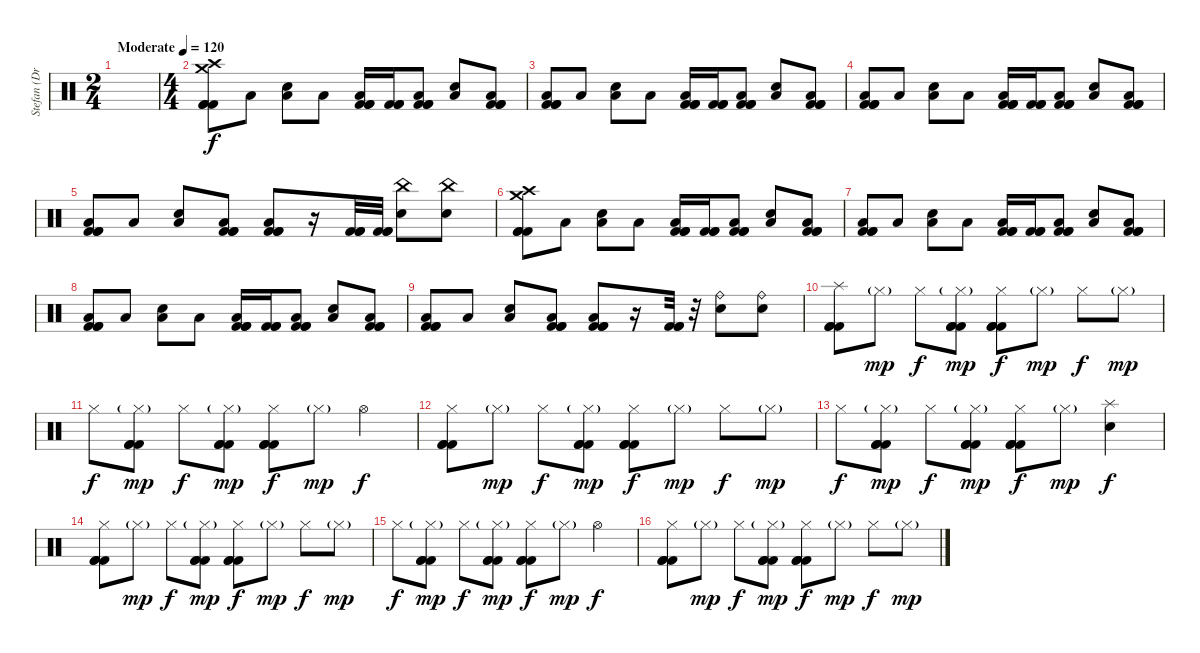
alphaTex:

\track ("Stefan (Drums)" "Stefan (Dr") {instrument percussion}
\staff {score}
\articulation defaults
\ts (2 4)
\tempo (120 "Moderate")
\clef neutral
\ks c
|
\ts (4 4)
("Crash high (hit)" "Crash medium (hit)" "Kick (hit) 2" "Kick (hit) 2" "Kick (hit) 2").8 "Low Tom (hit)".8 ("Snare (hit) 2" "Low Tom (hit)").8 "Low Tom (hit)".8 ("Low Tom (hit)" "Kick (hit) 2" "Kick (hit) 2" "Kick (hit) 2").16 ("Kick (hit) 2" "Kick (hit) 2" "Kick (hit) 2").16 ("Low Tom (hit)" "Kick (hit) 2" "Kick (hit) 2" "Kick (hit) 2").8 ("Snare (hit) 2" "Low Tom (hit)").8 ("Low Tom (hit)" "Kick (hit) 2" "Kick (hit) 2" "Kick (hit) 2").8 |
("Low Tom (hit)" "Kick (hit) 2" "Kick (hit) 2" "Kick (hit) 2").8 "Low Tom (hit)".8 ("Snare (hit) 2" "Low Tom (hit)").8 "Low Tom (hit)".8 ("Low Tom (hit)" "Kick (hit) 2" "Kick (hit) 2" "Kick (hit) 2").16 ("Kick (hit) 2" "Kick (hit) 2" "Kick (hit) 2").16 ("Low Tom (hit)" "Kick (hit) 2" "Kick (hit) 2" "Kick (hit) 2").8 ("Snare (hit) 2" "Low Tom (hit)").8 ("Low Tom (hit)" "Kick (hit) 2" "Kick (hit) 2" "Kick (hit) 2").8 |
("Low Tom (hit)" "Kick (hit) 2" "Kick (hit) 2" "Kick (hit) 2").8 "Low Tom (hit)".8 ("Snare (hit) 2" "Low Tom (hit)").8 "Low Tom (hit)".8 ("Low Tom (hit)" "Kick (hit) 2" "Kick (hit) 2" "Kick (hit) 2").16 ("Kick (hit) 2" "Kick (hit) 2" "Kick (hit) 2").16 ("Low Tom (hit)" "Kick (hit) 2" "Kick (hit) 2" "Kick (hit) 2").8 ("Snare (hit) 2" "Low Tom (hit)").8 ("Low Tom (hit)" "Kick (hit) 2" "Kick (hit) 2" "Kick (hit) 2").8 |
("Low Tom (hit)" "Kick (hit) 2" "Kick (hit) 2" "Kick (hit) 2").8 "Low Tom (hit)".8 ("Snare (hit) 2" "Low Tom (hit)").8 ("Low Tom (hit)" "Kick (hit) 2" "Kick (hit) 2" "Kick (hit) 2").8 ("Low Tom (hit)" "Kick (hit) 2" "Kick (hit) 2" "Kick (hit) 2").8 r.16 ("Kick (hit) 2" "Kick (hit) 2" "Kick (hit) 2").32 ("Kick (hit) 2" "Kick (hit) 2" "Kick (hit) 2").32 ("China (hit)" "Snare (hit) 2").8 ("China (hit)" "Snare (hit) 2").8 |
("Crash high (hit)" "Crash medium (hit)" "Kick (hit) 2" "Kick (hit) 2" "Kick (hit) 2").8 "Low Tom (hit)".8 ("Snare (hit) 2" "Low Tom (hit)").8 "Low Tom (hit)".8 ("Low Tom (hit)" "Kick (hit) 2" "Kick (hit) 2" "Kick (hit) 2").16 ("Kick (hit) 2" "Kick (hit) 2" "Kick (hit) 2").16 ("Low Tom (hit)" "Kick (hit) 2" "Kick (hit) 2" "Kick (hit) 2").8 ("Snare (hit) 2" "Low Tom (hit)").8 ("Low Tom (hit)" "Kick (hit) 2" "Kick (hit) 2" "Kick (hit) 2").8 |
("Low Tom (hit)" "Kick (hit) 2" "Kick (hit) 2" "Kick (hit) 2").8 "Low Tom (hit)".8 ("Snare (hit) 2" "Low Tom (hit)").8 "Low Tom (hit)".8 ("Low Tom (hit)" "Kick (hit) 2" "Kick (hit) 2" "Kick (hit) 2").16 ("Kick (hit) 2" "Kick (hit) 2" "Kick (hit) 2").16 ("Low Tom (hit)" "Kick (hit) 2" "Kick (hit) 2" "Kick (hit) 2").8 ("Snare (hit) 2" "Low Tom (hit)").8 ("Low Tom (hit)" "Kick (hit) 2" "Kick (hit) 2" "Kick (hit) 2").8 |
("Low Tom (hit)" "Kick (hit) 2" "Kick (hit) 2" "Kick (hit) 2").8 "Low Tom (hit)".8 ("Snare (hit) 2" "Low Tom (hit)").8 "Low Tom (hit)".8 ("Low Tom (hit)" "Kick (hit) 2" "Kick (hit) 2" "Kick (hit) 2").16 ("Kick (hit) 2" "Kick (hit) 2" "Kick (hit) 2").16 ("Low Tom (hit)" "Kick (hit) 2" "Kick (hit) 2" "Kick (hit) 2").8 ("Snare (hit) 2" "Low Tom (hit)").8 ("Low Tom (hit)" "Kick (hit) 2" "Kick (hit) 2" "Kick (hit) 2").8 |
("Low Tom (hit)" "Kick (hit) 2" "Kick (hit) 2" "Kick (hit) 2").8 "Low Tom (hit)".8 ("Snare (hit) 2" "Low Tom (hit)").8 ("Low Tom (hit)" "Kick (hit) 2" "Kick (hit) 2" "Kick (hit) 2").8 ("Low Tom (hit)" "Kick (hit) 2" "Kick (hit) 2" "Kick (hit) 2").8 r.16 ("Kick (hit) 2" "Kick (hit) 2" "Kick (hit) 2").32 r.32 ("Ride (bell)" "Snare (hit) 2").8 ("Ride (bell)" "Snare (hit) 2").8 |
("Splash (hit)" "Kick (hit) 2" "Kick (hit) 2" "Kick (hit) 2").8 "Hi-Hat (closed)"{g}.8{dy mp} "Hi-Hat (closed)".8{dy f} ("Hi-Hat (closed)"{g} "Kick (hit) 2" "Kick (hit) 2" "Kick (hit) 2").8{dy mp} ("Hi-Hat (closed)" "Kick (hit) 2" "Kick (hit) 2" "Kick (hit) 2").8{dy f} "Hi-Hat (closed)"{g}.8{dy mp} "Hi-Hat (closed)".8{dy f} "Hi-Hat (closed)"{g}.8{dy mp} |
"Hi-Hat (closed)".8{dy f} ("Hi-Hat (closed)"{g} "Kick (hit) 2" "Kick (hit) 2" "Kick (hit) 2").8{dy mp} "Hi-Hat (closed)".8{dy f} ("Hi-Hat (closed)"{g} "Kick (hit) 2" "Kick (hit) 2" "Kick (hit) 2").8{dy mp} ("Hi-Hat (closed)" "Kick (hit) 2" "Kick (hit) 2" "Kick (hit) 2").8{dy f} "Hi-Hat (closed)"{g}.8{dy mp} "Hi-Hat (open)".4{dy f} |
("Hi-Hat (closed)" "Kick (hit) 2" "Kick (hit) 2" "Kick (hit) 2").8 "Hi-Hat (closed)"{g}.8{dy mp} "Hi-Hat (closed)".8{dy f} ("Hi-Hat (closed)"{g} "Kick (hit) 2" "Kick (hit) 2" "Kick (hit) 2").8{dy mp} ("Hi-Hat (closed)" "Kick (hit) 2" "Kick (hit) 2" "Kick (hit) 2").8{dy f} "Hi-Hat (closed)"{g}.8{dy mp} "Hi-Hat (closed)".8{dy f} "Hi-Hat (closed)"{g}.8{dy mp} |
"Hi-Hat (closed)".8{dy f} ("Hi-Hat (closed)"{g} "Kick (hit) 2" "Kick (hit) 2" "Kick (hit) 2").8{dy mp} "Hi-Hat (closed)".8{dy f} ("Hi-Hat (closed)"{g} "Kick (hit) 2" "Kick (hit) 2" "Kick (hit) 2").8{dy mp} ("Hi-Hat (closed)" "Kick (hit) 2" "Kick (hit) 2" "Kick (hit) 2").8{dy f} "Hi-Hat (closed)"{g}.8{dy mp} ("Splash (hit)" "Electric Snare (hit)").4{dy f} |
("Hi-Hat (closed)" "Kick (hit) 2" "Kick (hit) 2" "Kick (hit) 2").8 "Hi-Hat (closed)"{g}.8{dy mp} "Hi-Hat (closed)".8{dy f} ("Hi-Hat (closed)"{g} "Kick (hit) 2" "Kick (hit) 2" "Kick (hit) 2").8{dy mp} ("Hi-Hat (closed)" "Kick (hit) 2" "Kick (hit) 2" "Kick (hit) 2").8{dy f} "Hi-Hat (closed)"{g}.8{dy mp} "Hi-Hat (closed)".8{dy f} "Hi-Hat (closed)"{g}.8{dy mp} |
"Hi-Hat (closed)".8{dy f} ("Hi-Hat (closed)"{g} "Kick (hit) 2" "Kick (hit) 2" "Kick (hit) 2").8{dy mp} "Hi-Hat (closed)".8{dy f} ("Hi-Hat (closed)"{g} "Kick (hit) 2" "Kick (hit) 2" "Kick (hit) 2").8{dy mp} ("Hi-Hat (closed)" "Kick (hit) 2" "Kick (hit) 2" "Kick (hit) 2").8{dy f} "Hi-Hat (closed)"{g}.8{dy mp} "Hi-Hat (open)".4{dy f} |
("Hi-Hat (closed)" "Kick (hit) 2" "Kick (hit) 2" "Kick (hit) 2").8 "Hi-Hat (closed)"{g}.8{dy mp} "Hi-Hat (closed)".8{dy f} ("Hi-Hat (closed)"{g} "Kick (hit) 2" "Kick (hit) 2" "Kick (hit) 2").8{dy mp} ("Hi-Hat (closed)" "Kick (hit) 2" "Kick (hit) 2" "Kick (hit) 2").8{dy f} "Hi-Hat (closed)"{g}.8{dy mp} "Hi-Hat (closed)".8{dy f} "Hi-Hat (closed)"{g}.8{dy mp}
